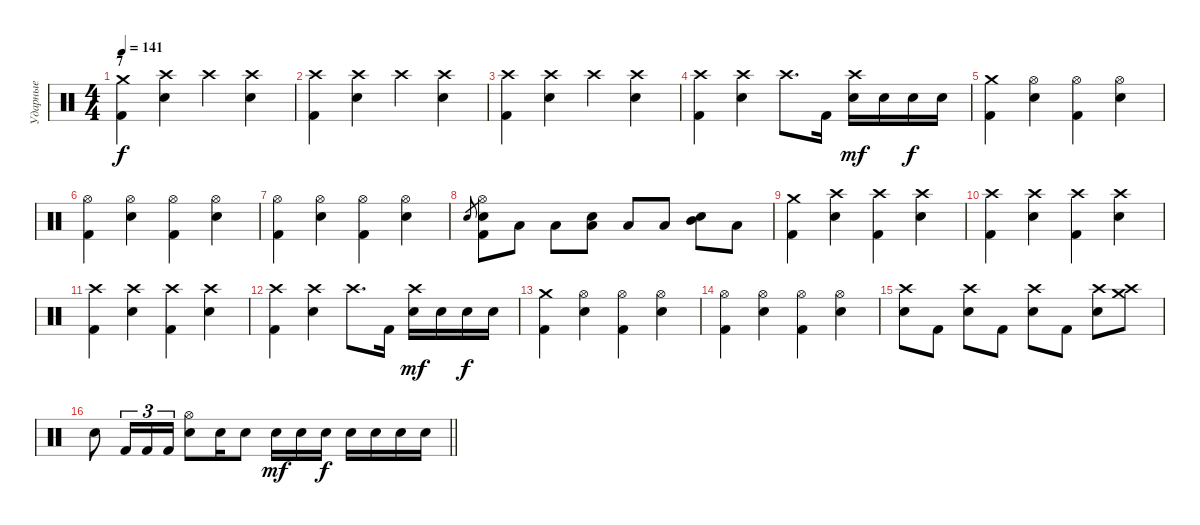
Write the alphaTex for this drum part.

\track ("Ударные" "Ударные") {instrument percussion}
\staff {score}
\articulation defaults
\ts (4 4)
\section ("" "7")
\tempo 141
\clef neutral
\ks c
("Crash medium (hit)" "Kick (hit) 2").4{dy f} ("Crash high (hit)" "Snare (hit) 2").4 "Crash high (hit)".4 ("Crash high (hit)" "Snare (hit) 2").4 |
("Crash high (hit)" "Kick (hit) 2").4 ("Crash high (hit)" "Snare (hit) 2").4 "Crash high (hit)".4 ("Crash high (hit)" "Snare (hit) 2").4 |
("Crash high (hit)" "Kick (hit) 2").4 ("Crash high (hit)" "Snare (hit) 2").4 "Crash high (hit)".4 ("Crash high (hit)" "Snare (hit) 2").4 |
("Crash high (hit)" "Kick (hit) 2").4 ("Crash high (hit)" "Snare (hit) 2").4 "Crash high (hit)".8{d} "Kick (hit) 2".16 ("Crash high (hit)" "Snare (hit) 2").16{dy mf} "Snare (hit) 2".16 "Snare (hit) 2".16{dy f} "Snare (hit) 2".16 |
("Crash medium (hit)" "Kick (hit) 2").4 ("Hi-Hat (open)" "Snare (hit) 2").4 ("Hi-Hat (open)" "Kick (hit) 2").4 ("Hi-Hat (open)" "Snare (hit) 2").4 |
("Hi-Hat (open)" "Kick (hit) 2").4 ("Hi-Hat (open)" "Snare (hit) 2").4 ("Hi-Hat (open)" "Kick (hit) 2").4 ("Hi-Hat (open)" "Snare (hit) 2").4 |
("Hi-Hat (open)" "Kick (hit) 2").4 ("Hi-Hat (open)" "Snare (hit) 2").4 ("Hi-Hat (open)" "Kick (hit) 2").4 ("Hi-Hat (open)" "Snare (hit) 2").4 |
"Snare (hit) 2".8{gr} ("Hi-Hat (open)" "Snare (hit) 2" "Kick (hit) 2").8 "Low Floor Tom (hit)".8 "Low Floor Tom (hit)".8 ("Snare (hit) 2" "Low Tom (hit)").8 "Low Floor Tom (hit)".8 "Low Floor Tom (hit)".8 ("Snare (hit) 2" "Mid Tom (hit)").8 "Low Floor Tom (hit)".8 |
("Crash medium (hit)" "Kick (hit) 2").4 ("Crash high (hit)" "Snare (hit) 2").4 ("Crash high (hit)" "Kick (hit) 2").4 ("Crash high (hit)" "Snare (hit) 2").4 |
("Crash high (hit)" "Kick (hit) 2").4 ("Crash high (hit)" "Snare (hit) 2").4 ("Crash high (hit)" "Kick (hit) 2").4 ("Crash high (hit)" "Snare (hit) 2").4 |
("Crash high (hit)" "Kick (hit) 2").4 ("Crash high (hit)" "Snare (hit) 2").4 ("Crash high (hit)" "Kick (hit) 2").4 ("Crash high (hit)" "Snare (hit) 2").4 |
("Crash high (hit)" "Kick (hit) 2").4 ("Crash high (hit)" "Snare (hit) 2").4 "Crash high (hit)".8{d} "Kick (hit) 2".16 ("Crash high (hit)" "Snare (hit) 2").16{dy mf} "Snare (hit) 2".16 "Snare (hit) 2".16{dy f} "Snare (hit) 2".16 |
("Crash medium (hit)" "Kick (hit) 2").4 ("Hi-Hat (open)" "Snare (hit) 2").4 ("Hi-Hat (open)" "Kick (hit) 2").4 ("Hi-Hat (open)" "Snare (hit) 2").4 |
("Hi-Hat (open)" "Kick (hit) 2").4 ("Hi-Hat (open)" "Snare (hit) 2").4 ("Hi-Hat (open)" "Kick (hit) 2").4 ("Hi-Hat (open)" "Snare (hit) 2").4 |
("Crash high (hit)" "Snare (hit) 2").8 "Kick (hit) 2".8 ("Crash high (hit)" "Snare (hit) 2").8 "Kick (hit) 2".8 ("Crash high (hit)" "Snare (hit) 2").8 "Kick (hit) 2".8 ("Crash high (hit)" "Snare (hit) 2").8 ("Crash medium (hit)" "Crash high (hit)").8 |
\barLineRight lightlight "Snare (hit) 2".8 "Kick (hit) 2".16{tu (3 2)} "Kick (hit) 2".16{tu (3 2)} "Kick (hit) 2".16{tu (3 2)}
("Hi-Hat (open)" "Snare (hit) 2").8 "Snare (hit) 2".16 "Snare (hit) 2".8 "Snare (hit) 2".16{dy mf} "Snare (hit) 2".16 "Snare (hit) 2".16{dy f} "Snare (hit) 2".16 "Snare (hit) 2".16 "Snare (hit) 2".16 "Snare (hit) 2".16
